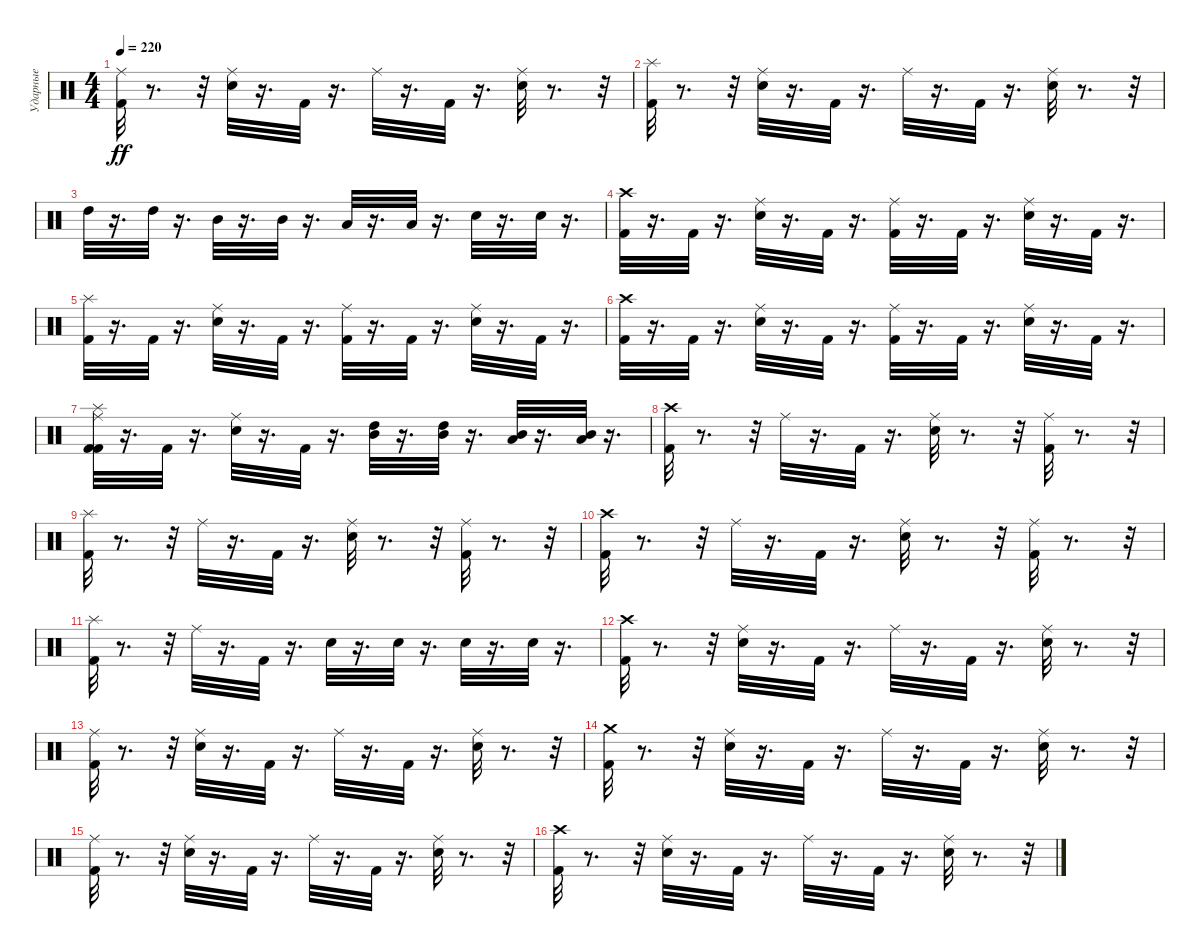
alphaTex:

\track ("Ударные" "Ударные") {instrument percussion}
\staff {score}
\articulation defaults
\ts (4 4)
\tempo 220
\clef neutral
\ks c
("Kick (hit) 2" "Ride (middle)").32{dy ff} r.8{d} r.32 ("Snare (hit) 2" "Ride (middle)").32 r.16{d} "Kick (hit) 2".32 r.16{d} "Ride (middle)".32 r.16{d} "Kick (hit) 2".32 r.16{d} ("Snare (hit) 2" "Ride (middle)").32 r.8{d} r.32 |
("Splash (hit)" "Kick (hit) 2").32 r.8{d} r.32 ("Ride (middle)" "Snare (hit) 2").32 r.16{d} "Kick (hit) 2".32 r.16{d} "Ride (middle)".32 r.16{d} "Kick (hit) 2".32 r.16{d} ("Ride (middle)" "Snare (hit) 2").32 r.8{d} r.32 |
"High Tom (hit)".32 r.16{d} "High Tom (hit)".32 r.16{d} "Mid Tom (hit)".32 r.16{d} "Mid Tom (hit)".32 r.16{d} "Low Tom (hit)".32 r.16{d} "Low Tom (hit)".32 r.16{d} "Snare (hit) 2".32 r.16{d} "Snare (hit) 2".32 r.16{d} |
("Crash high (hit)" "Kick (hit) 2").32 r.16{d} "Kick (hit) 2".32 r.16{d} ("Ride (middle)" "Snare (hit) 2").32 r.16{d} "Kick (hit) 2".32 r.16{d} ("Ride (middle)" "Kick (hit) 2").32 r.16{d} "Kick (hit) 2".32 r.16{d} ("Snare (hit) 2" "Ride (middle)").32 r.16{d} "Kick (hit) 2".32 r.16{d} |
("Kick (hit) 2" "Splash (hit)").32 r.16{d} "Kick (hit) 2".32 r.16{d} ("Snare (hit) 2" "Ride (middle)").32 r.16{d} "Kick (hit) 2".32 r.16{d} ("Kick (hit) 2" "Ride (middle)").32 r.16{d} "Kick (hit) 2".32 r.16{d} ("Snare (hit) 2" "Ride (middle)").32 r.16{d} "Kick (hit) 2".32 r.16{d} |
("Crash high (hit)" "Kick (hit) 2").32 r.16{d} "Kick (hit) 2".32 r.16{d} ("Ride (middle)" "Snare (hit) 2").32 r.16{d} "Kick (hit) 2".32 r.16{d} ("Ride (middle)" "Kick (hit) 2").32 r.16{d} "Kick (hit) 2".32 r.16{d} ("Snare (hit) 2" "Ride (middle)").32 r.16{d} "Kick (hit) 2".32 r.16{d} |
("Ride (middle)" "Kick (hit) 2" "Kick (hit) 2" "Splash (hit)").32 r.16{d} "Kick (hit) 2".32 r.16{d} ("Ride (middle)" "Snare (hit) 2").32 r.16{d} "Kick (hit) 2".32 r.16{d} ("Mid Tom (hit)" "High Tom (hit)").32 r.16{d} ("Mid Tom (hit)" "High Tom (hit)").32 r.16{d} ("Low Tom (hit)" "Mid Tom (hit)").32 r.16{d} ("Low Tom (hit)" "Mid Tom (hit)").32 r.16{d} |
("Kick (hit) 2" "Crash high (hit)").32 r.8{d} r.32 "Ride (middle)".32 r.16{d} "Kick (hit) 2".32 r.16{d} ("Snare (hit) 2" "Ride (middle)").32 r.8{d} r.32 ("Kick (hit) 2" "Ride (middle)").32 r.8{d} r.32 |
("Splash (hit)" "Kick (hit) 2").32 r.8{d} r.32 "Ride (middle)".32 r.16{d} "Kick (hit) 2".32 r.16{d} ("Ride (middle)" "Snare (hit) 2").32 r.8{d} r.32 ("Ride (middle)" "Kick (hit) 2").32 r.8{d} r.32 |
("Kick (hit) 2" "Crash high (hit)").32 r.8{d} r.32 "Ride (middle)".32 r.16{d} "Kick (hit) 2".32 r.16{d} ("Snare (hit) 2" "Ride (middle)").32 r.8{d} r.32 ("Kick (hit) 2" "Ride (middle)").32 r.8{d} r.32 |
("Splash (hit)" "Kick (hit) 2").32 r.8{d} r.32 "Ride (middle)".32 r.16{d} "Kick (hit) 2".32 r.16{d} "Snare (hit) 2".32 r.16{d} "Snare (hit) 2".32 r.16{d} "Snare (hit) 2".32 r.16{d} "Snare (hit) 2".32 r.16{d} |
("Crash high (hit)" "Kick (hit) 2").32 r.8{d} r.32 ("Ride (middle)" "Snare (hit) 2").32 r.16{d} "Kick (hit) 2".32 r.16{d} "Ride (middle)".32 r.16{d} "Kick (hit) 2".32 r.16{d} ("Ride (middle)" "Snare (hit) 2").32 r.8{d} r.32 |
("Kick (hit) 2" "Ride (middle)").32 r.8{d} r.32 ("Snare (hit) 2" "Ride (middle)").32 r.16{d} "Kick (hit) 2".32 r.16{d} "Ride (middle)".32 r.16{d} "Kick (hit) 2".32 r.16{d} ("Snare (hit) 2" "Ride (middle)").32 r.8{d} r.32 |
("Crash medium (hit)" "Kick (hit) 2").32 r.8{d} r.32 ("Ride (middle)" "Snare (hit) 2").32 r.16{d} "Kick (hit) 2".32 r.16{d} "Ride (middle)".32 r.16{d} "Kick (hit) 2".32 r.16{d} ("Ride (middle)" "Snare (hit) 2").32 r.8{d} r.32 |
("Kick (hit) 2" "Ride (middle)").32 r.8{d} r.32 ("Snare (hit) 2" "Ride (middle)").32 r.16{d} "Kick (hit) 2".32 r.16{d} "Ride (middle)".32 r.16{d} "Kick (hit) 2".32 r.16{d} ("Snare (hit) 2" "Ride (middle)").32 r.8{d} r.32 |
("Crash high (hit)" "Kick (hit) 2").32 r.8{d} r.32 ("Ride (middle)" "Snare (hit) 2").32 r.16{d} "Kick (hit) 2".32 r.16{d} "Ride (middle)".32 r.16{d} "Kick (hit) 2".32 r.16{d} ("Ride (middle)" "Snare (hit) 2").32 r.8{d} r.32
